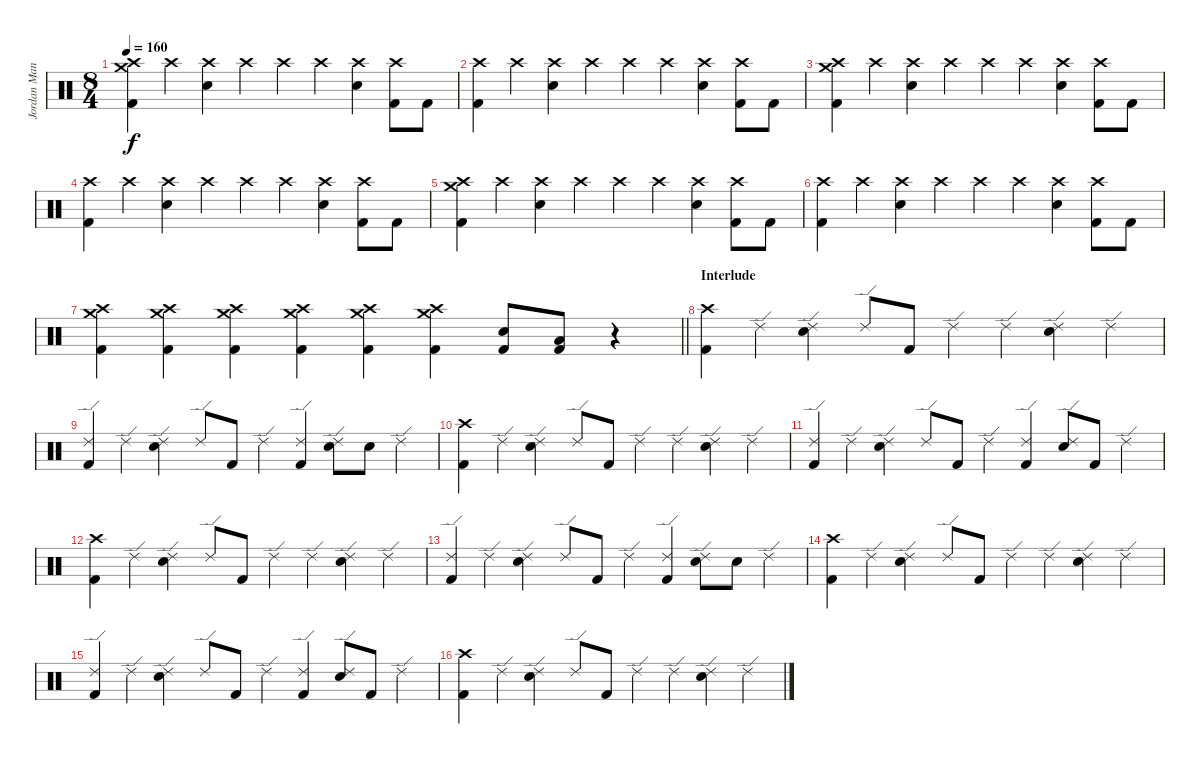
\track ("Jordan Mancino" "Jordan Man") {instrument percussion}
\staff {score}
\articulation defaults
\ts (8 4)
\tempo 160
\clef neutral
\ks c
("Crash high (hit)" "Crash medium (hit)" "Kick (hit) 2").4{dy f} "Crash high (hit)".4 ("Crash high (hit)" "Electric Snare (hit)").4 "Crash high (hit)".4 "Crash high (hit)".4 "Crash high (hit)".4 ("Crash high (hit)" "Electric Snare (hit)").4 ("Crash high (hit)" "Kick (hit) 2").8 "Kick (hit) 2".8 |
("Crash high (hit)" "Kick (hit) 2").4 "Crash high (hit)".4 ("Crash high (hit)" "Electric Snare (hit)").4 "Crash high (hit)".4 "Crash high (hit)".4 "Crash high (hit)".4 ("Crash high (hit)" "Electric Snare (hit)").4 ("Crash high (hit)" "Kick (hit) 2").8 "Kick (hit) 2".8 |
("Crash high (hit)" "Crash medium (hit)" "Kick (hit) 2").4 "Crash high (hit)".4 ("Crash high (hit)" "Electric Snare (hit)").4 "Crash high (hit)".4 "Crash high (hit)".4 "Crash high (hit)".4 ("Crash high (hit)" "Electric Snare (hit)").4 ("Crash high (hit)" "Kick (hit) 2").8 "Kick (hit) 2".8 |
("Crash high (hit)" "Kick (hit) 2").4 "Crash high (hit)".4 ("Crash high (hit)" "Electric Snare (hit)").4 "Crash high (hit)".4 "Crash high (hit)".4 "Crash high (hit)".4 ("Crash high (hit)" "Electric Snare (hit)").4 ("Crash high (hit)" "Kick (hit) 2").8 "Kick (hit) 2".8 |
("Crash high (hit)" "Crash medium (hit)" "Kick (hit) 2").4 "Crash high (hit)".4 ("Crash high (hit)" "Electric Snare (hit)").4 "Crash high (hit)".4 "Crash high (hit)".4 "Crash high (hit)".4 ("Crash high (hit)" "Electric Snare (hit)").4 ("Crash high (hit)" "Kick (hit) 2").8 "Kick (hit) 2".8 |
("Crash high (hit)" "Kick (hit) 2").4 "Crash high (hit)".4 ("Crash high (hit)" "Electric Snare (hit)").4 "Crash high (hit)".4 "Crash high (hit)".4 "Crash high (hit)".4 ("Crash high (hit)" "Electric Snare (hit)").4 ("Crash high (hit)" "Kick (hit) 2").8 "Kick (hit) 2".8 |
\barLineRight lightlight
("Crash high (hit)" "Crash medium (hit)" "Kick (hit) 2").4 ("Crash high (hit)" "Crash medium (hit)" "Kick (hit) 2").4 ("Crash high (hit)" "Crash medium (hit)" "Kick (hit) 2").4 ("Crash high (hit)" "Crash medium (hit)" "Kick (hit) 2").4 ("Crash high (hit)" "Crash medium (hit)" "Kick (hit) 2").4 ("Crash high (hit)" "Crash medium (hit)" "Kick (hit) 2").4 ("Electric Snare (hit)" "Kick (hit) 2").8 ("Low Floor Tom (hit)" "Kick (hit) 2").8 r.4 |
\section ("" "Interlude")
("Crash high (hit)" "Kick (hit) 2").4 "Ride (edge) 2".4 ("Ride (edge) 2" "Snare (hit) 2").4 "Ride (edge) 2".8 "Kick (hit) 2".8 "Ride (edge) 2".4 "Ride (edge) 2".4 ("Ride (edge) 2" "Snare (hit) 2").4 "Ride (edge) 2".4 |
("Ride (edge) 2" "Kick (hit) 2").4 "Ride (edge) 2".4 ("Ride (edge) 2" "Snare (hit) 2").4 "Ride (edge) 2".8 "Kick (hit) 2".8 "Ride (edge) 2".4 ("Ride (edge) 2" "Kick (hit) 2").4 ("Ride (edge) 2" "Snare (hit) 2").8 "Snare (hit) 2".8 "Ride (edge) 2".4 |
("Crash high (hit)" "Kick (hit) 2").4 "Ride (edge) 2".4 ("Ride (edge) 2" "Snare (hit) 2").4 "Ride (edge) 2".8 "Kick (hit) 2".8 "Ride (edge) 2".4 "Ride (edge) 2".4 ("Ride (edge) 2" "Snare (hit) 2").4 "Ride (edge) 2".4 |
("Ride (edge) 2" "Kick (hit) 2").4 "Ride (edge) 2".4 ("Ride (edge) 2" "Snare (hit) 2").4 "Ride (edge) 2".8 "Kick (hit) 2".8 "Ride (edge) 2".4 ("Ride (edge) 2" "Kick (hit) 2").4 ("Ride (edge) 2" "Snare (hit) 2").8 "Kick (hit) 2".8 "Ride (edge) 2".4 |
("Crash high (hit)" "Kick (hit) 2").4 "Ride (edge) 2".4 ("Ride (edge) 2" "Snare (hit) 2").4 "Ride (edge) 2".8 "Kick (hit) 2".8 "Ride (edge) 2".4 "Ride (edge) 2".4 ("Ride (edge) 2" "Snare (hit) 2").4 "Ride (edge) 2".4 |
("Ride (edge) 2" "Kick (hit) 2").4 "Ride (edge) 2".4 ("Ride (edge) 2" "Snare (hit) 2").4 "Ride (edge) 2".8 "Kick (hit) 2".8 "Ride (edge) 2".4 ("Ride (edge) 2" "Kick (hit) 2").4 ("Ride (edge) 2" "Snare (hit) 2").8 "Snare (hit) 2".8 "Ride (edge) 2".4 |
("Crash high (hit)" "Kick (hit) 2").4 "Ride (edge) 2".4 ("Ride (edge) 2" "Snare (hit) 2").4 "Ride (edge) 2".8 "Kick (hit) 2".8 "Ride (edge) 2".4 "Ride (edge) 2".4 ("Ride (edge) 2" "Snare (hit) 2").4 "Ride (edge) 2".4 |
("Ride (edge) 2" "Kick (hit) 2").4 "Ride (edge) 2".4 ("Ride (edge) 2" "Snare (hit) 2").4 "Ride (edge) 2".8 "Kick (hit) 2".8 "Ride (edge) 2".4 ("Ride (edge) 2" "Kick (hit) 2").4 ("Ride (edge) 2" "Snare (hit) 2").8 "Kick (hit) 2".8 "Ride (edge) 2".4 |
("Crash high (hit)" "Kick (hit) 2").4 "Ride (edge) 2".4 ("Ride (edge) 2" "Snare (hit) 2").4 "Ride (edge) 2".8 "Kick (hit) 2".8 "Ride (edge) 2".4 "Ride (edge) 2".4 ("Ride (edge) 2" "Snare (hit) 2").4 "Ride (edge) 2".4
